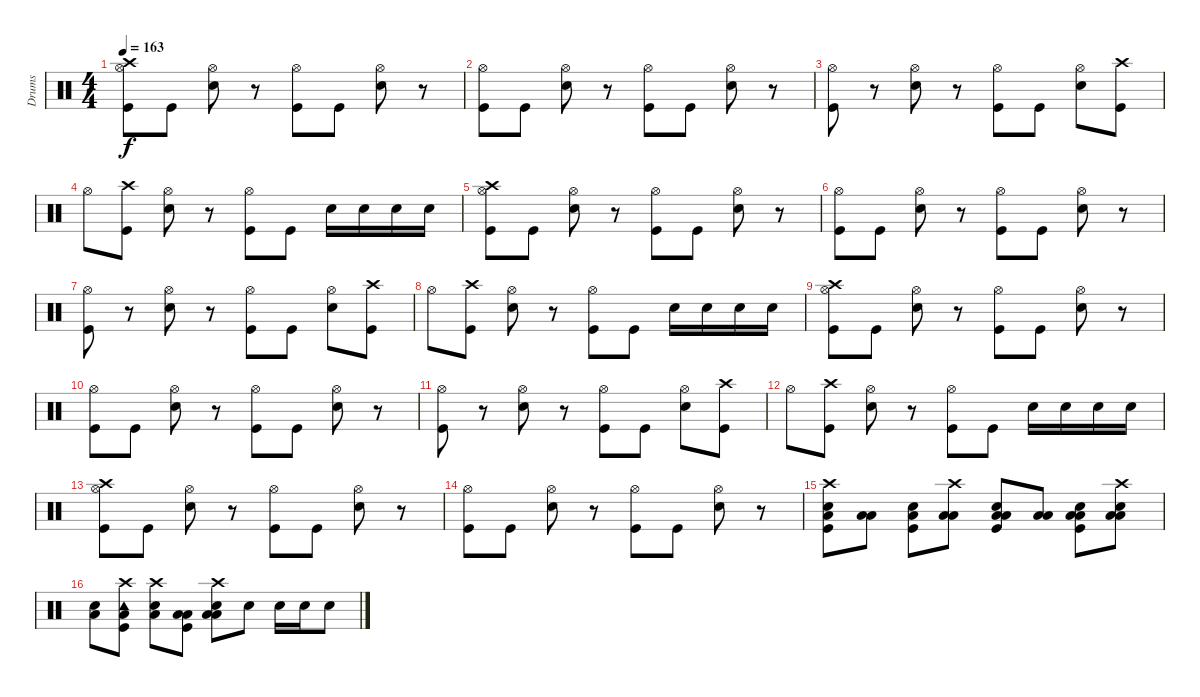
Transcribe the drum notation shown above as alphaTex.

\track ("Drums" "Drums") {instrument percussion}
\staff {score}
\articulation defaults
\ts (4 4)
\tempo 163
\clef neutral
\ks c
("Crash high (hit)" "Kick (hit)" "Hi-Hat (open)").8{dy f} "Kick (hit)".8 ("Electric Snare (hit)" "Hi-Hat (open)").8 r.8 ("Kick (hit)" "Hi-Hat (open)").8 "Kick (hit)".8 ("Electric Snare (hit)" "Hi-Hat (open)").8 r.8 |
("Kick (hit)" "Hi-Hat (open)").8 "Kick (hit)".8 ("Electric Snare (hit)" "Hi-Hat (open)").8 r.8 ("Kick (hit)" "Hi-Hat (open)").8 "Kick (hit)".8 ("Electric Snare (hit)" "Hi-Hat (open)").8 r.8 |
("Kick (hit)" "Hi-Hat (open)").8 r.8 ("Electric Snare (hit)" "Hi-Hat (open)").8 r.8 ("Kick (hit)" "Hi-Hat (open)").8 "Kick (hit)".8 ("Electric Snare (hit)" "Hi-Hat (open)").8 ("Kick (hit)" "Crash high (hit)").8 |
"Hi-Hat (open)".8 ("Kick (hit)" "Crash high (hit)").8 ("Electric Snare (hit)" "Hi-Hat (open)").8 r.8 ("Kick (hit)" "Hi-Hat (open)").8 "Kick (hit)".8 "Snare (hit) 2".16 "Snare (hit) 2".16 "Snare (hit) 2".16 "Snare (hit) 2".16 |
("Crash high (hit)" "Kick (hit)" "Hi-Hat (open)").8 "Kick (hit)".8 ("Electric Snare (hit)" "Hi-Hat (open)").8 r.8 ("Kick (hit)" "Hi-Hat (open)").8 "Kick (hit)".8 ("Electric Snare (hit)" "Hi-Hat (open)").8 r.8 |
("Kick (hit)" "Hi-Hat (open)").8 "Kick (hit)".8 ("Electric Snare (hit)" "Hi-Hat (open)").8 r.8 ("Kick (hit)" "Hi-Hat (open)").8 "Kick (hit)".8 ("Electric Snare (hit)" "Hi-Hat (open)").8 r.8 |
("Kick (hit)" "Hi-Hat (open)").8 r.8 ("Electric Snare (hit)" "Hi-Hat (open)").8 r.8 ("Kick (hit)" "Hi-Hat (open)").8 "Kick (hit)".8 ("Electric Snare (hit)" "Hi-Hat (open)").8 ("Kick (hit)" "Crash high (hit)").8 |
"Hi-Hat (open)".8 ("Kick (hit)" "Crash high (hit)").8 ("Electric Snare (hit)" "Hi-Hat (open)").8 r.8 ("Kick (hit)" "Hi-Hat (open)").8 "Kick (hit)".8 "Snare (hit) 2".16 "Snare (hit) 2".16 "Snare (hit) 2".16 "Snare (hit) 2".16 |
("Crash high (hit)" "Kick (hit)" "Hi-Hat (open)").8 "Kick (hit)".8 ("Electric Snare (hit)" "Hi-Hat (open)").8 r.8 ("Kick (hit)" "Hi-Hat (open)").8 "Kick (hit)".8 ("Electric Snare (hit)" "Hi-Hat (open)").8 r.8 |
("Kick (hit)" "Hi-Hat (open)").8 "Kick (hit)".8 ("Electric Snare (hit)" "Hi-Hat (open)").8 r.8 ("Kick (hit)" "Hi-Hat (open)").8 "Kick (hit)".8 ("Electric Snare (hit)" "Hi-Hat (open)").8 r.8 |
("Kick (hit)" "Hi-Hat (open)").8 r.8 ("Electric Snare (hit)" "Hi-Hat (open)").8 r.8 ("Kick (hit)" "Hi-Hat (open)").8 "Kick (hit)".8 ("Electric Snare (hit)" "Hi-Hat (open)").8 ("Kick (hit)" "Crash high (hit)").8 |
"Hi-Hat (open)".8 ("Kick (hit)" "Crash high (hit)").8 ("Electric Snare (hit)" "Hi-Hat (open)").8 r.8 ("Kick (hit)" "Hi-Hat (open)").8 "Kick (hit)".8 "Snare (hit) 2".16 "Snare (hit) 2".16 "Snare (hit) 2".16 "Snare (hit) 2".16 |
("Crash high (hit)" "Kick (hit)" "Hi-Hat (open)").8 "Kick (hit)".8 ("Electric Snare (hit)" "Hi-Hat (open)").8 r.8 ("Kick (hit)" "Hi-Hat (open)").8 "Kick (hit)".8 ("Electric Snare (hit)" "Hi-Hat (open)").8 r.8 |
("Kick (hit)" "Hi-Hat (open)").8 "Kick (hit)".8 ("Electric Snare (hit)" "Hi-Hat (open)").8 r.8 ("Kick (hit)" "Hi-Hat (open)").8 "Kick (hit)".8 ("Electric Snare (hit)" "Hi-Hat (open)").8 r.8 |
("Crash high (hit)" "Snare (hit) 2" "Low Floor Tom (hit)" "Kick (hit)").8 ("Low Tom (hit)" "Low Floor Tom (hit)").8 ("Snare (hit) 2" "Low Floor Tom (hit)" "Kick (hit)").8 ("Crash high (hit)" "Low Tom (hit)" "Low Floor Tom (hit)").8 ("Snare (hit) 2" "Low Tom (hit)" "Low Floor Tom (hit)" "Kick (hit)").8 ("Low Tom (hit)" "Low Floor Tom (hit)").8 ("Snare (hit) 2" "Low Tom (hit)" "Low Floor Tom (hit)" "Kick (hit)").8 ("Crash high (hit)" "Snare (hit) 2" "Low Tom (hit)" "Low Floor Tom (hit)").8 |
("Snare (hit) 2" "Low Floor Tom (hit)").8 ("Crash high (hit)" "Tambourine (hit)" "Low Floor Tom (hit)" "Kick (hit)").8 ("Crash high (hit)" "Snare (hit) 2" "Low Floor Tom (hit)").8 ("Low Tom (hit)" "Low Floor Tom (hit)" "Kick (hit)").8 ("Crash high (hit)" "Snare (hit) 2" "Low Tom (hit)" "Low Floor Tom (hit)").8 "Snare (hit) 2".8 "Snare (hit) 2".16 "Snare (hit) 2".16 "Snare (hit) 2".8
